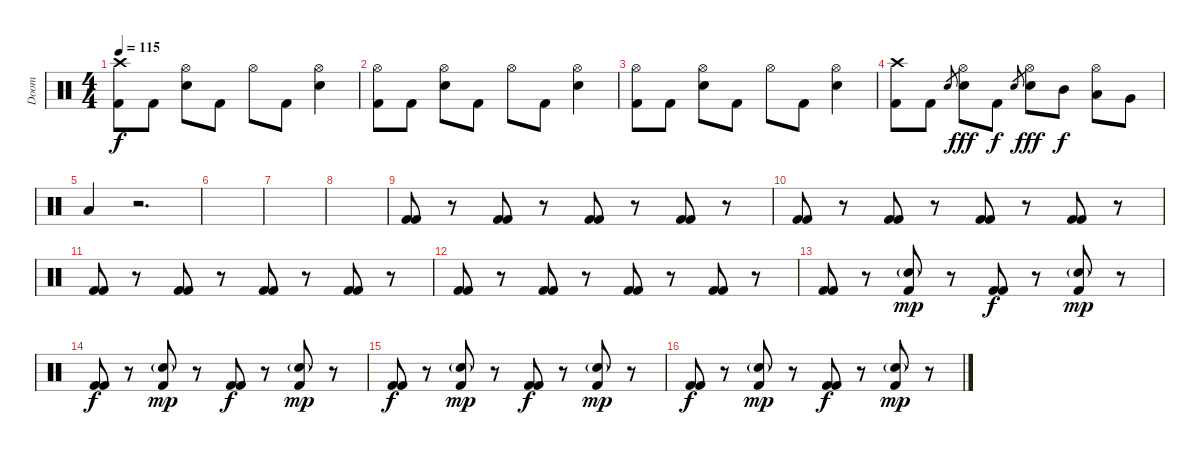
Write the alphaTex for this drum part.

\track ("Doom" "Doom") {instrument percussion}
\staff {score}
\articulation defaults
\ts (4 4)
\tempo 115
\clef neutral
\ks c
("Crash high (hit)" "Kick (hit) 2").8{dy f} "Kick (hit) 2".8 ("Hi-Hat (open)" "Electric Snare (hit)").8 "Kick (hit) 2".8 "Hi-Hat (open)".8 "Kick (hit) 2".8 ("Hi-Hat (open)" "Electric Snare (hit)").4 |
("Hi-Hat (open)" "Kick (hit) 2").8 "Kick (hit) 2".8 ("Hi-Hat (open)" "Electric Snare (hit)").8 "Kick (hit) 2".8 "Hi-Hat (open)".8 "Kick (hit) 2".8 ("Hi-Hat (open)" "Electric Snare (hit)").4 |
("Hi-Hat (open)" "Kick (hit) 2").8 "Kick (hit) 2".8 ("Hi-Hat (open)" "Electric Snare (hit)").8 "Kick (hit) 2".8 "Hi-Hat (open)".8 "Kick (hit) 2".8 ("Hi-Hat (open)" "Electric Snare (hit)").4 |
("Crash high (hit)" "Kick (hit) 2").8 "Kick (hit) 2".8 "Electric Snare (hit)".8{gr} ("Hi-Hat (open)" "Electric Snare (hit)").8{dy fff} "Kick (hit) 2".8{dy f} "Electric Snare (hit)".8{gr} ("Hi-Hat (open)" "Electric Snare (hit)").8{dy fff} "Mid Tom (hit)".8{dy f} ("Hi-Hat (open)" "Low Tom (hit)").8 "Very Low Tom (hit)".8 |
"Low Floor Tom (hit)".4 r.2{d} |
|
|
|
("Kick (hit) 2" "Kick (hit) 2").8 r.8 ("Kick (hit) 2" "Kick (hit) 2").8 r.8 ("Kick (hit) 2" "Kick (hit) 2").8 r.8 ("Kick (hit) 2" "Kick (hit) 2").8 r.8 |
("Kick (hit) 2" "Kick (hit) 2").8 r.8 ("Kick (hit) 2" "Kick (hit) 2").8 r.8 ("Kick (hit) 2" "Kick (hit) 2").8 r.8 ("Kick (hit) 2" "Kick (hit) 2").8 r.8 |
("Kick (hit) 2" "Kick (hit) 2").8 r.8 ("Kick (hit) 2" "Kick (hit) 2").8 r.8 ("Kick (hit) 2" "Kick (hit) 2").8 r.8 ("Kick (hit) 2" "Kick (hit) 2").8 r.8 |
("Kick (hit) 2" "Kick (hit) 2").8 r.8 ("Kick (hit) 2" "Kick (hit) 2").8 r.8 ("Kick (hit) 2" "Kick (hit) 2").8 r.8 ("Kick (hit) 2" "Kick (hit) 2").8 r.8 |
("Kick (hit) 2" "Kick (hit) 2").8 r.8 ("Electric Snare (hit)"{g} "Kick (hit) 2").8{dy mp} r.8 ("Kick (hit) 2" "Kick (hit) 2").8{dy f} r.8 ("Electric Snare (hit)"{g} "Kick (hit) 2").8{dy mp} r.8 |
("Kick (hit) 2" "Kick (hit) 2").8{dy f} r.8 ("Electric Snare (hit)"{g} "Kick (hit) 2").8{dy mp} r.8 ("Kick (hit) 2" "Kick (hit) 2").8{dy f} r.8 ("Electric Snare (hit)"{g} "Kick (hit) 2").8{dy mp} r.8 |
("Kick (hit) 2" "Kick (hit) 2").8{dy f} r.8 ("Electric Snare (hit)"{g} "Kick (hit) 2").8{dy mp} r.8 ("Kick (hit) 2" "Kick (hit) 2").8{dy f} r.8 ("Electric Snare (hit)"{g} "Kick (hit) 2").8{dy mp} r.8 |
("Kick (hit) 2" "Kick (hit) 2").8{dy f} r.8 ("Electric Snare (hit)"{g} "Kick (hit) 2").8{dy mp} r.8 ("Kick (hit) 2" "Kick (hit) 2").8{dy f} r.8 ("Electric Snare (hit)"{g} "Kick (hit) 2").8{dy mp} r.8
